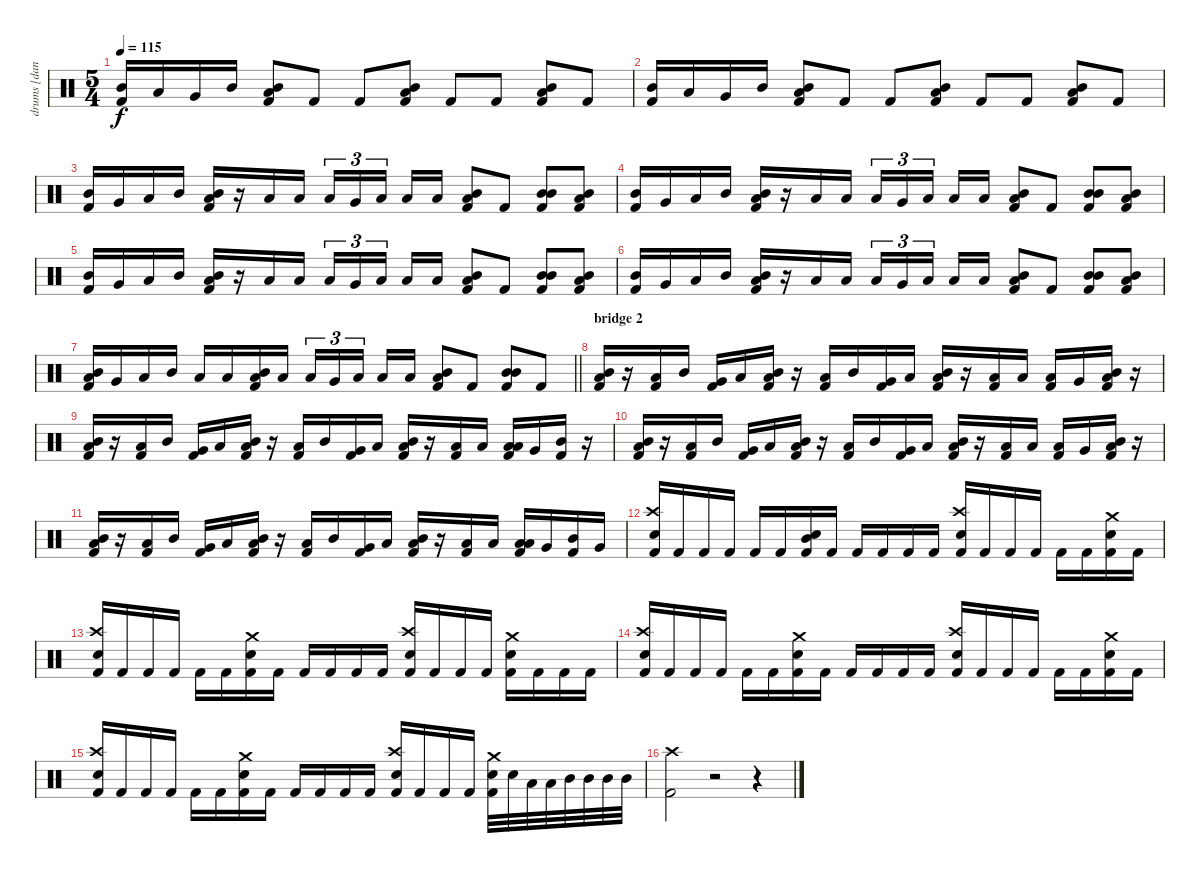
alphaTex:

\track ("drums [danny carey]" "drums [dan") {instrument percussion}
\staff {score}
\articulation defaults
\ts (5 4)
\tempo 115
\clef neutral
\ks c
("Mid Tom (hit)" "Kick (hit) 2").16{dy f} "Low Tom (hit)".16 "Very Low Tom (hit)".16 "Mid Tom (hit)".16 ("Low Tom (hit)" "Mid Tom (hit)" "Kick (hit) 2").8 "Kick (hit) 2".8 "Kick (hit) 2".8 ("Low Tom (hit)" "Mid Tom (hit)" "Kick (hit) 2").8 "Kick (hit) 2".8 "Kick (hit) 2".8 ("Low Tom (hit)" "Mid Tom (hit)" "Kick (hit) 2").8 "Kick (hit) 2".8 |
("Mid Tom (hit)" "Kick (hit) 2").16 "Low Tom (hit)".16 "Very Low Tom (hit)".16 "Mid Tom (hit)".16 ("Low Tom (hit)" "Mid Tom (hit)" "Kick (hit) 2").8 "Kick (hit) 2".8 "Kick (hit) 2".8 ("Low Tom (hit)" "Mid Tom (hit)" "Kick (hit) 2").8 "Kick (hit) 2".8 "Kick (hit) 2".8 ("Low Tom (hit)" "Mid Tom (hit)" "Kick (hit) 2").8 "Kick (hit) 2".8 |
("Mid Tom (hit)" "Kick (hit) 2").16 "Very Low Tom (hit)".16 "Low Tom (hit)".16 "Mid Tom (hit)".16 ("Mid Tom (hit)" "Low Tom (hit)" "Kick (hit) 2").16 r.16 "Low Tom (hit)".16 "Low Tom (hit)".16 "Low Tom (hit)".16{tu (3 2)} "Very Low Tom (hit)".16{tu (3 2)} "Low Tom (hit)".16{tu (3 2) beam splitsecondary} "Low Tom (hit)".16 "Low Tom (hit)".16 ("Mid Tom (hit)" "Low Tom (hit)" "Kick (hit) 2").8 "Kick (hit) 2".8 ("Mid Tom (hit)" "Mid Tom (hit)" "Kick (hit) 2").8 ("Mid Tom (hit)" "Low Tom (hit)" "Kick (hit) 2").8 |
("Mid Tom (hit)" "Kick (hit) 2").16 "Very Low Tom (hit)".16 "Low Tom (hit)".16 "Mid Tom (hit)".16 ("Mid Tom (hit)" "Low Tom (hit)" "Kick (hit) 2").16 r.16 "Low Tom (hit)".16 "Low Tom (hit)".16 "Low Tom (hit)".16{tu (3 2)} "Very Low Tom (hit)".16{tu (3 2)} "Low Tom (hit)".16{tu (3 2) beam splitsecondary} "Low Tom (hit)".16 "Low Tom (hit)".16 ("Mid Tom (hit)" "Low Tom (hit)" "Kick (hit) 2").8 "Kick (hit) 2".8 ("Mid Tom (hit)" "Mid Tom (hit)" "Kick (hit) 2").8 ("Mid Tom (hit)" "Low Tom (hit)" "Kick (hit) 2").8 |
("Mid Tom (hit)" "Kick (hit) 2").16 "Very Low Tom (hit)".16 "Low Tom (hit)".16 "Mid Tom (hit)".16 ("Mid Tom (hit)" "Low Tom (hit)" "Kick (hit) 2").16 r.16 "Low Tom (hit)".16 "Low Tom (hit)".16 "Low Tom (hit)".16{tu (3 2)} "Very Low Tom (hit)".16{tu (3 2)} "Low Tom (hit)".16{tu (3 2) beam splitsecondary} "Low Tom (hit)".16 "Low Tom (hit)".16 ("Mid Tom (hit)" "Low Tom (hit)" "Kick (hit) 2").8 "Kick (hit) 2".8 ("Mid Tom (hit)" "Mid Tom (hit)" "Kick (hit) 2").8 ("Mid Tom (hit)" "Low Tom (hit)" "Kick (hit) 2").8 |
("Mid Tom (hit)" "Kick (hit) 2").16 "Very Low Tom (hit)".16 "Low Tom (hit)".16 "Mid Tom (hit)".16 ("Mid Tom (hit)" "Low Tom (hit)" "Kick (hit) 2").16 r.16 "Low Tom (hit)".16 "Low Tom (hit)".16 "Low Tom (hit)".16{tu (3 2)} "Very Low Tom (hit)".16{tu (3 2)} "Low Tom (hit)".16{tu (3 2) beam splitsecondary} "Low Tom (hit)".16 "Low Tom (hit)".16 ("Mid Tom (hit)" "Low Tom (hit)" "Kick (hit) 2").8 "Kick (hit) 2".8 ("Mid Tom (hit)" "Mid Tom (hit)" "Kick (hit) 2").8 ("Mid Tom (hit)" "Low Tom (hit)" "Kick (hit) 2").8 |
\barLineRight lightlight
("Low Tom (hit)" "Mid Tom (hit)" "Kick (hit) 2").16 "Very Low Tom (hit)".16 "Low Tom (hit)".16 "Mid Tom (hit)".16 "Low Tom (hit)".16 "Low Tom (hit)".16 ("Mid Tom (hit)" "Low Tom (hit)" "Kick (hit) 2").16 "Low Tom (hit)".16 "Low Tom (hit)".16{tu (3 2)} "Very Low Tom (hit)".16{tu (3 2)} "Low Tom (hit)".16{tu (3 2) beam splitsecondary} "Low Tom (hit)".16 "Low Tom (hit)".16 ("Mid Tom (hit)" "Low Tom (hit)" "Kick (hit) 2").8 "Kick (hit) 2".8 ("Mid Tom (hit)" "Mid Tom (hit)" "Kick (hit) 2").8 "Kick (hit) 2".8 |
\section ("" "bridge 2")
("Low Tom (hit)" "Mid Tom (hit)" "Kick (hit) 2").16 r.16 ("Low Tom (hit)" "Kick (hit) 2").16 "Mid Tom (hit)".16 ("Very Low Tom (hit)" "Kick (hit) 2").16 "Low Tom (hit)".16 ("Low Tom (hit)" "Mid Tom (hit)" "Kick (hit) 2").16 r.16 ("Low Tom (hit)" "Kick (hit) 2").16 "Mid Tom (hit)".16 ("Very Low Tom (hit)" "Kick (hit) 2").16 "Low Tom (hit)".16 ("Low Tom (hit)" "Mid Tom (hit)" "Kick (hit) 2").16 r.16 ("Low Tom (hit)" "Kick (hit) 2").16 "Low Tom (hit)".16 ("Low Tom (hit)" "Kick (hit) 2").16 "Very Low Tom (hit)".16 ("Low Tom (hit)" "Mid Tom (hit)" "Kick (hit) 2").16 r.16 |
("Low Tom (hit)" "Mid Tom (hit)" "Kick (hit) 2").16 r.16 ("Low Tom (hit)" "Kick (hit) 2").16 "Mid Tom (hit)".16 ("Very Low Tom (hit)" "Kick (hit) 2").16 "Low Tom (hit)".16 ("Low Tom (hit)" "Mid Tom (hit)" "Kick (hit) 2").16 r.16 ("Low Tom (hit)" "Kick (hit) 2").16 "Mid Tom (hit)".16 ("Very Low Tom (hit)" "Kick (hit) 2").16 "Low Tom (hit)".16 ("Low Tom (hit)" "Mid Tom (hit)" "Kick (hit) 2").16 r.16 ("Low Tom (hit)" "Kick (hit) 2").16 "Low Tom (hit)".16 ("Low Tom (hit)" "Low Tom (hit)" "Kick (hit) 2").16 "Very Low Tom (hit)".16 ("Mid Tom (hit)" "Kick (hit) 2").16 r.16 |
("Low Tom (hit)" "Mid Tom (hit)" "Kick (hit) 2").16 r.16 ("Low Tom (hit)" "Kick (hit) 2").16 "Mid Tom (hit)".16 ("Very Low Tom (hit)" "Kick (hit) 2").16 "Low Tom (hit)".16 ("Low Tom (hit)" "Mid Tom (hit)" "Kick (hit) 2").16 r.16 ("Low Tom (hit)" "Kick (hit) 2").16 "Mid Tom (hit)".16 ("Very Low Tom (hit)" "Kick (hit) 2").16 "Low Tom (hit)".16 ("Low Tom (hit)" "Mid Tom (hit)" "Kick (hit) 2").16 r.16 ("Low Tom (hit)" "Kick (hit) 2").16 "Low Tom (hit)".16 ("Low Tom (hit)" "Kick (hit) 2").16 "Very Low Tom (hit)".16 ("Low Tom (hit)" "Mid Tom (hit)" "Kick (hit) 2").16 r.16 |
("Low Tom (hit)" "Mid Tom (hit)" "Kick (hit) 2").16 r.16 ("Low Tom (hit)" "Kick (hit) 2").16 "Mid Tom (hit)".16 ("Very Low Tom (hit)" "Kick (hit) 2").16 "Low Tom (hit)".16 ("Low Tom (hit)" "Mid Tom (hit)" "Kick (hit) 2").16 r.16 ("Low Tom (hit)" "Kick (hit) 2").16 "Mid Tom (hit)".16 ("Very Low Tom (hit)" "Kick (hit) 2").16 "Low Tom (hit)".16 ("Low Tom (hit)" "Mid Tom (hit)" "Kick (hit) 2").16 r.16 ("Low Tom (hit)" "Kick (hit) 2").16 "Low Tom (hit)".16 ("Low Tom (hit)" "Low Tom (hit)" "Kick (hit) 2").16 "Very Low Tom (hit)".16 ("Mid Tom (hit)" "Kick (hit) 2").16 "Very Low Tom (hit)".16 |
("Crash high (hit)" "Electric Snare (hit)" "Kick (hit) 2").16 "Kick (hit) 2".16 "Kick (hit) 2".16 "Kick (hit) 2".16 "Kick (hit) 2".16 "Kick (hit) 2".16 ("Mid Tom (hit)" "Electric Snare (hit)" "Kick (hit) 2").16 "Kick (hit) 2".16 "Kick (hit) 2".16 "Kick (hit) 2".16 "Kick (hit) 2".16 "Kick (hit) 2".16 ("Crash high (hit)" "Electric Snare (hit)" "Kick (hit) 2").16 "Kick (hit) 2".16 "Kick (hit) 2".16 "Kick (hit) 2".16 "Kick (hit) 2".16 "Kick (hit) 2".16 ("Crash medium (hit)" "Electric Snare (hit)" "Kick (hit) 2").16 "Kick (hit) 2".16 |
("Crash high (hit)" "Electric Snare (hit)" "Kick (hit) 2").16 "Kick (hit) 2".16 "Kick (hit) 2".16 "Kick (hit) 2".16 "Kick (hit) 2".16 "Kick (hit) 2".16 ("Crash medium (hit)" "Electric Snare (hit)" "Kick (hit) 2").16 "Kick (hit) 2".16 "Kick (hit) 2".16 "Kick (hit) 2".16 "Kick (hit) 2".16 "Kick (hit) 2".16 ("Crash high (hit)" "Electric Snare (hit)" "Kick (hit) 2").16 "Kick (hit) 2".16 "Kick (hit) 2".16 "Kick (hit) 2".16 ("Crash medium (hit)" "Electric Snare (hit)" "Kick (hit) 2").16 "Kick (hit) 2".16 "Kick (hit) 2".16 "Kick (hit) 2".16 |
("Crash high (hit)" "Electric Snare (hit)" "Kick (hit) 2").16 "Kick (hit) 2".16 "Kick (hit) 2".16 "Kick (hit) 2".16 "Kick (hit) 2".16 "Kick (hit) 2".16 ("Crash medium (hit)" "Electric Snare (hit)" "Kick (hit) 2").16 "Kick (hit) 2".16 "Kick (hit) 2".16 "Kick (hit) 2".16 "Kick (hit) 2".16 "Kick (hit) 2".16 ("Crash high (hit)" "Electric Snare (hit)" "Kick (hit) 2").16 "Kick (hit) 2".16 "Kick (hit) 2".16 "Kick (hit) 2".16 "Kick (hit) 2".16 "Kick (hit) 2".16 ("Crash medium (hit)" "Electric Snare (hit)" "Kick (hit) 2").16 "Kick (hit) 2".16 |
("Crash high (hit)" "Electric Snare (hit)" "Kick (hit) 2").16 "Kick (hit) 2".16 "Kick (hit) 2".16 "Kick (hit) 2".16 "Kick (hit) 2".16 "Kick (hit) 2".16 ("Crash medium (hit)" "Electric Snare (hit)" "Kick (hit) 2").16 "Kick (hit) 2".16 "Kick (hit) 2".16 "Kick (hit) 2".16 "Kick (hit) 2".16 "Kick (hit) 2".16 ("Crash high (hit)" "Electric Snare (hit)" "Kick (hit) 2").16 "Kick (hit) 2".16 "Kick (hit) 2".16 "Kick (hit) 2".16 ("Crash medium (hit)" "Electric Snare (hit)" "Kick (hit) 2").32 "Electric Snare (hit)".32 "Low Tom (hit)".32 "Low Tom (hit)".32 "Mid Tom (hit)".32 "Mid Tom (hit)".32 "Mid Tom (hit)".32 "Mid Tom (hit)".32 |
("Crash high (hit)" "Kick (hit) 2").2 r.2 r.4
